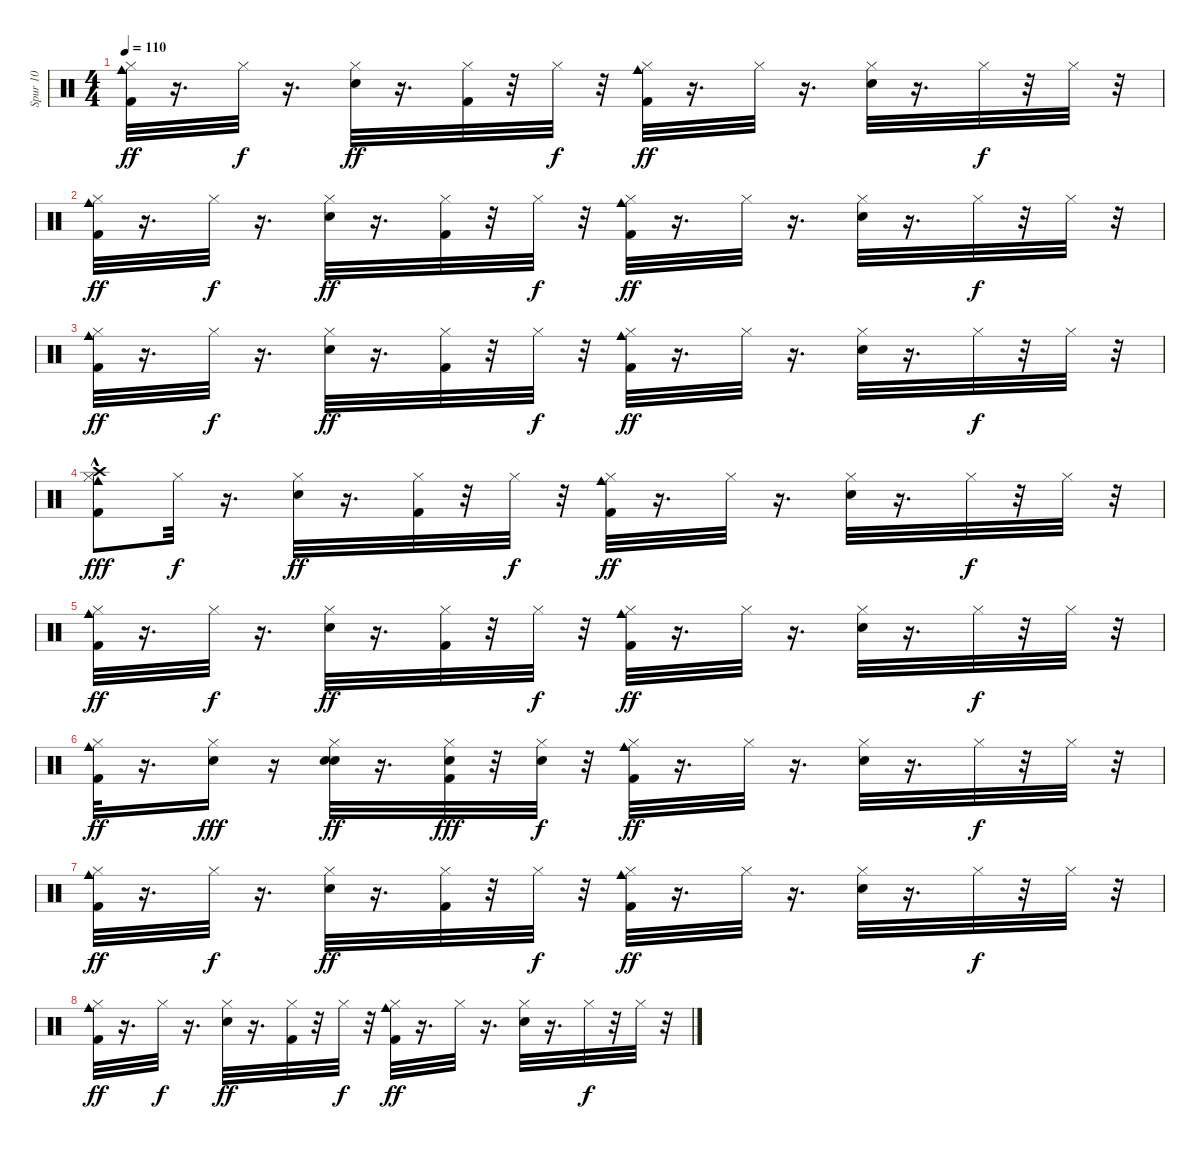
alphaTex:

\track ("Spur 10" "Spur 10") {instrument percussion}
\staff {score}
\articulation defaults
\ts (4 4)
\tempo 110
\clef neutral
\ks c
("Kick (hit) 2" "Cowbell medium (hit)" "Hi-Hat (closed)").32{dy ff} r.16{d} "Hi-Hat (closed)".32{dy f} r.16{d} ("Snare (hit) 2" "Hi-Hat (closed)").32{dy ff} r.16{d} ("Kick (hit) 2" "Hi-Hat (closed)").32 r.32 "Hi-Hat (closed)".32{dy f} r.32 ("Kick (hit) 2" "Cowbell medium (hit)" "Hi-Hat (closed)").32{dy ff} r.16{d} "Hi-Hat (closed)".32 r.16{d} ("Snare (hit) 2" "Hi-Hat (closed)").32 r.16{d} "Hi-Hat (closed)".32{dy f} r.32 "Hi-Hat (closed)".32 r.32 |
("Kick (hit) 2" "Cowbell medium (hit)" "Hi-Hat (closed)").32{dy ff} r.16{d} "Hi-Hat (closed)".32{dy f} r.16{d} ("Snare (hit) 2" "Hi-Hat (closed)").32{dy ff} r.16{d} ("Kick (hit) 2" "Hi-Hat (closed)").32 r.32 "Hi-Hat (closed)".32{dy f} r.32 ("Kick (hit) 2" "Cowbell medium (hit)" "Hi-Hat (closed)").32{dy ff} r.16{d} "Hi-Hat (closed)".32 r.16{d} ("Snare (hit) 2" "Hi-Hat (closed)").32 r.16{d} "Hi-Hat (closed)".32{dy f} r.32 "Hi-Hat (closed)".32 r.32 |
("Kick (hit) 2" "Cowbell medium (hit)" "Hi-Hat (closed)").32{dy ff} r.16{d} "Hi-Hat (closed)".32{dy f} r.16{d} ("Snare (hit) 2" "Hi-Hat (closed)").32{dy ff} r.16{d} ("Kick (hit) 2" "Hi-Hat (closed)").32 r.32 "Hi-Hat (closed)".32{dy f} r.32 ("Kick (hit) 2" "Cowbell medium (hit)" "Hi-Hat (closed)").32{dy ff} r.16{d} "Hi-Hat (closed)".32 r.16{d} ("Snare (hit) 2" "Hi-Hat (closed)").32 r.16{d} "Hi-Hat (closed)".32{dy f} r.32 "Hi-Hat (closed)".32 r.32 |
("Kick (hit) 2" "Cowbell medium (hit)" "Hi-Hat (closed)" "Crash high (hit)"{hac}).8{dy fff} "Hi-Hat (closed)".32{dy f} r.16{d} ("Snare (hit) 2" "Hi-Hat (closed)").32{dy ff} r.16{d} ("Kick (hit) 2" "Hi-Hat (closed)").32 r.32 "Hi-Hat (closed)".32{dy f} r.32 ("Kick (hit) 2" "Cowbell medium (hit)" "Hi-Hat (closed)").32{dy ff} r.16{d} "Hi-Hat (closed)".32 r.16{d} ("Snare (hit) 2" "Hi-Hat (closed)").32 r.16{d} "Hi-Hat (closed)".32{dy f} r.32 "Hi-Hat (closed)".32 r.32 |
("Kick (hit) 2" "Cowbell medium (hit)" "Hi-Hat (closed)").32{dy ff} r.16{d} "Hi-Hat (closed)".32{dy f} r.16{d} ("Snare (hit) 2" "Hi-Hat (closed)").32{dy ff} r.16{d} ("Kick (hit) 2" "Hi-Hat (closed)").32 r.32 "Hi-Hat (closed)".32{dy f} r.32 ("Kick (hit) 2" "Cowbell medium (hit)" "Hi-Hat (closed)").32{dy ff} r.16{d} "Hi-Hat (closed)".32 r.16{d} ("Snare (hit) 2" "Hi-Hat (closed)").32 r.16{d} "Hi-Hat (closed)".32{dy f} r.32 "Hi-Hat (closed)".32 r.32 |
("Kick (hit) 2" "Cowbell medium (hit)" "Hi-Hat (closed)").32{dy ff} r.16{d} ("Hi-Hat (closed)" "Hand Clap (hit)").16{dy fff} r.16 ("Snare (hit) 2" "Hand Clap (hit)" "Hi-Hat (closed)").32{dy ff} r.16{d} ("Kick (hit) 2" "Hi-Hat (closed)" "Hand Clap (hit)").32{dy fff} r.32 ("Hand Clap (hit)" "Hi-Hat (closed)").32{dy f} r.32 ("Kick (hit) 2" "Cowbell medium (hit)" "Hi-Hat (closed)").32{dy ff} r.16{d} "Hi-Hat (closed)".32 r.16{d} ("Snare (hit) 2" "Hi-Hat (closed)").32 r.16{d} "Hi-Hat (closed)".32{dy f} r.32 "Hi-Hat (closed)".32 r.32 |
("Kick (hit) 2" "Cowbell medium (hit)" "Hi-Hat (closed)").32{dy ff} r.16{d} "Hi-Hat (closed)".32{dy f} r.16{d} ("Snare (hit) 2" "Hi-Hat (closed)").32{dy ff} r.16{d} ("Kick (hit) 2" "Hi-Hat (closed)").32 r.32 "Hi-Hat (closed)".32{dy f} r.32 ("Kick (hit) 2" "Cowbell medium (hit)" "Hi-Hat (closed)").32{dy ff} r.16{d} "Hi-Hat (closed)".32 r.16{d} ("Snare (hit) 2" "Hi-Hat (closed)").32 r.16{d} "Hi-Hat (closed)".32{dy f} r.32 "Hi-Hat (closed)".32 r.32 |
("Kick (hit) 2" "Cowbell medium (hit)" "Hi-Hat (closed)").32{dy ff} r.16{d} "Hi-Hat (closed)".32{dy f} r.16{d} ("Snare (hit) 2" "Hi-Hat (closed)").32{dy ff} r.16{d} ("Kick (hit) 2" "Hi-Hat (closed)").32 r.32 "Hi-Hat (closed)".32{dy f} r.32 ("Kick (hit) 2" "Cowbell medium (hit)" "Hi-Hat (closed)").32{dy ff} r.16{d} "Hi-Hat (closed)".32 r.16{d} ("Snare (hit) 2" "Hi-Hat (closed)").32 r.16{d} "Hi-Hat (closed)".32{dy f} r.32 "Hi-Hat (closed)".32 r.32
